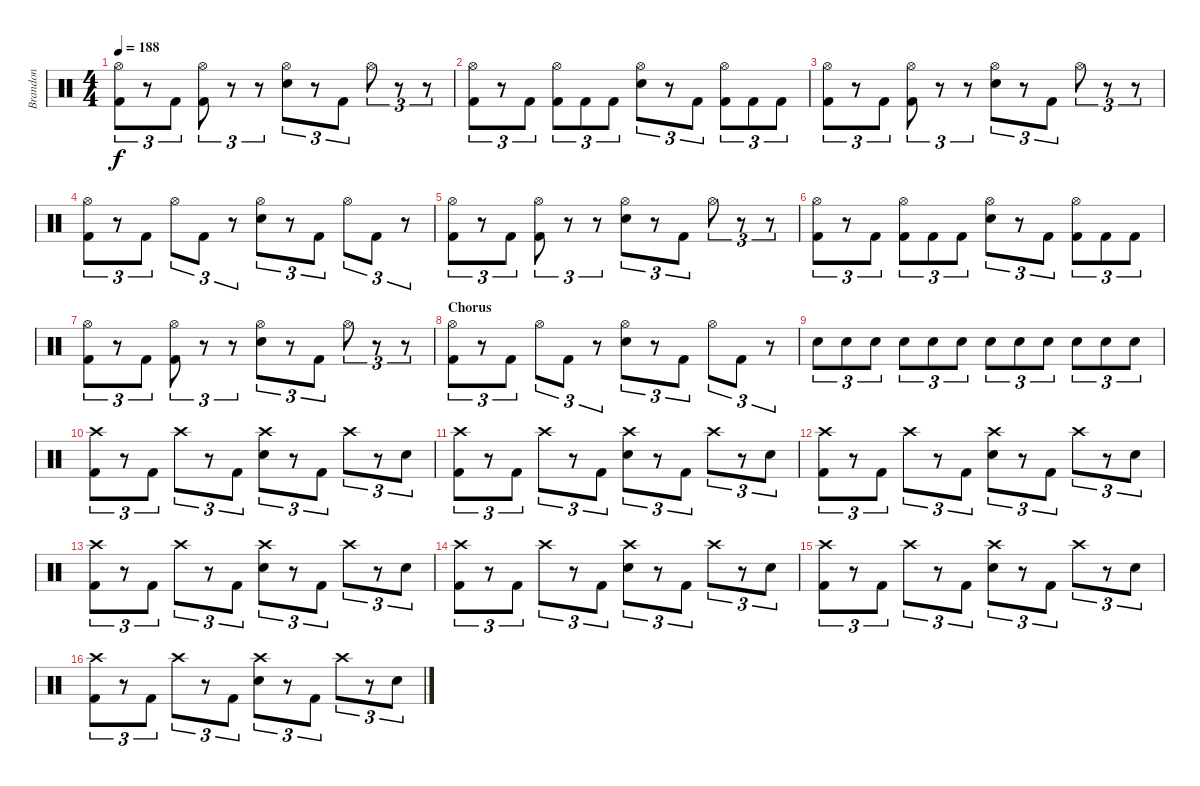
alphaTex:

\track ("Brandon" "Brandon") {instrument percussion}
\staff {score}
\articulation defaults
\ts (4 4)
\tempo 188
\clef neutral
\ks c
("Hi-Hat (open)" "Kick (hit) 2").8{tu (3 2) dy f} r.8{tu (3 2)} "Kick (hit) 2".8{tu (3 2)} ("Hi-Hat (open)" "Kick (hit) 2").8{tu (3 2)} r.8{tu (3 2)} r.8{tu (3 2)} ("Hi-Hat (open)" "Electric Snare (hit)").8{tu (3 2)} r.8{tu (3 2)} "Kick (hit) 2".8{tu (3 2)} "Hi-Hat (open)".8{tu (3 2)} r.8{tu (3 2)} r.8{tu (3 2)} |
("Hi-Hat (open)" "Kick (hit) 2").8{tu (3 2)} r.8{tu (3 2)} "Kick (hit) 2".8{tu (3 2)} ("Hi-Hat (open)" "Kick (hit) 2").8{tu (3 2)} "Kick (hit) 2".8{tu (3 2)} "Kick (hit) 2".8{tu (3 2)} ("Hi-Hat (open)" "Electric Snare (hit)").8{tu (3 2)} r.8{tu (3 2)} "Kick (hit) 2".8{tu (3 2)} ("Hi-Hat (open)" "Kick (hit) 2").8{tu (3 2)} "Kick (hit) 2".8{tu (3 2)} "Kick (hit) 2".8{tu (3 2)} |
("Hi-Hat (open)" "Kick (hit) 2").8{tu (3 2)} r.8{tu (3 2)} "Kick (hit) 2".8{tu (3 2)} ("Hi-Hat (open)" "Kick (hit) 2").8{tu (3 2)} r.8{tu (3 2)} r.8{tu (3 2)} ("Hi-Hat (open)" "Electric Snare (hit)").8{tu (3 2)} r.8{tu (3 2)} "Kick (hit) 2".8{tu (3 2)} "Hi-Hat (open)".8{tu (3 2)} r.8{tu (3 2)} r.8{tu (3 2)} |
("Hi-Hat (open)" "Kick (hit) 2").8{tu (3 2)} r.8{tu (3 2)} "Kick (hit) 2".8{tu (3 2)} "Hi-Hat (open)".8{tu (3 2)} "Kick (hit) 2".8{tu (3 2)} r.8{tu (3 2)} ("Hi-Hat (open)" "Electric Snare (hit)").8{tu (3 2)} r.8{tu (3 2)} "Kick (hit) 2".8{tu (3 2)} "Hi-Hat (open)".8{tu (3 2)} "Kick (hit) 2".8{tu (3 2)} r.8{tu (3 2)} |
("Hi-Hat (open)" "Kick (hit) 2").8{tu (3 2)} r.8{tu (3 2)} "Kick (hit) 2".8{tu (3 2)} ("Hi-Hat (open)" "Kick (hit) 2").8{tu (3 2)} r.8{tu (3 2)} r.8{tu (3 2)} ("Hi-Hat (open)" "Electric Snare (hit)").8{tu (3 2)} r.8{tu (3 2)} "Kick (hit) 2".8{tu (3 2)} "Hi-Hat (open)".8{tu (3 2)} r.8{tu (3 2)} r.8{tu (3 2)} |
("Hi-Hat (open)" "Kick (hit) 2").8{tu (3 2)} r.8{tu (3 2)} "Kick (hit) 2".8{tu (3 2)} ("Hi-Hat (open)" "Kick (hit) 2").8{tu (3 2)} "Kick (hit) 2".8{tu (3 2)} "Kick (hit) 2".8{tu (3 2)} ("Hi-Hat (open)" "Electric Snare (hit)").8{tu (3 2)} r.8{tu (3 2)} "Kick (hit) 2".8{tu (3 2)} ("Hi-Hat (open)" "Kick (hit) 2").8{tu (3 2)} "Kick (hit) 2".8{tu (3 2)} "Kick (hit) 2".8{tu (3 2)} |
("Hi-Hat (open)" "Kick (hit) 2").8{tu (3 2)} r.8{tu (3 2)} "Kick (hit) 2".8{tu (3 2)} ("Hi-Hat (open)" "Kick (hit) 2").8{tu (3 2)} r.8{tu (3 2)} r.8{tu (3 2)} ("Hi-Hat (open)" "Electric Snare (hit)").8{tu (3 2)} r.8{tu (3 2)} "Kick (hit) 2".8{tu (3 2)} "Hi-Hat (open)".8{tu (3 2)} r.8{tu (3 2)} r.8{tu (3 2)} |
\section ("" "Chorus")
("Hi-Hat (open)" "Kick (hit) 2").8{tu (3 2)} r.8{tu (3 2)} "Kick (hit) 2".8{tu (3 2)} "Hi-Hat (open)".8{tu (3 2)} "Kick (hit) 2".8{tu (3 2)} r.8{tu (3 2)} ("Hi-Hat (open)" "Electric Snare (hit)").8{tu (3 2)} r.8{tu (3 2)} "Kick (hit) 2".8{tu (3 2)} "Hi-Hat (open)".8{tu (3 2)} "Kick (hit) 2".8{tu (3 2)} r.8{tu (3 2)} |
"Electric Snare (hit)".8{tu (3 2)} "Electric Snare (hit)".8{tu (3 2)} "Electric Snare (hit)".8{tu (3 2)} "Electric Snare (hit)".8{tu (3 2)} "Electric Snare (hit)".8{tu (3 2)} "Electric Snare (hit)".8{tu (3 2)} "Electric Snare (hit)".8{tu (3 2)} "Electric Snare (hit)".8{tu (3 2)} "Electric Snare (hit)".8{tu (3 2)} "Electric Snare (hit)".8{tu (3 2)} "Electric Snare (hit)".8{tu (3 2)} "Electric Snare (hit)".8{tu (3 2)} |
("Crash high (hit)" "Kick (hit) 2").8{tu (3 2)} r.8{tu (3 2)} "Kick (hit) 2".8{tu (3 2)} "Crash high (hit)".8{tu (3 2)} r.8{tu (3 2)} "Kick (hit) 2".8{tu (3 2)} ("Crash high (hit)" "Electric Snare (hit)").8{tu (3 2)} r.8{tu (3 2)} "Kick (hit) 2".8{tu (3 2)} "Crash high (hit)".8{tu (3 2)} r.8{tu (3 2)} "Electric Snare (hit)".8{tu (3 2)} |
("Crash high (hit)" "Kick (hit) 2").8{tu (3 2)} r.8{tu (3 2)} "Kick (hit) 2".8{tu (3 2)} "Crash high (hit)".8{tu (3 2)} r.8{tu (3 2)} "Kick (hit) 2".8{tu (3 2)} ("Crash high (hit)" "Electric Snare (hit)").8{tu (3 2)} r.8{tu (3 2)} "Kick (hit) 2".8{tu (3 2)} "Crash high (hit)".8{tu (3 2)} r.8{tu (3 2)} "Electric Snare (hit)".8{tu (3 2)} |
("Crash high (hit)" "Kick (hit) 2").8{tu (3 2)} r.8{tu (3 2)} "Kick (hit) 2".8{tu (3 2)} "Crash high (hit)".8{tu (3 2)} r.8{tu (3 2)} "Kick (hit) 2".8{tu (3 2)} ("Crash high (hit)" "Electric Snare (hit)").8{tu (3 2)} r.8{tu (3 2)} "Kick (hit) 2".8{tu (3 2)} "Crash high (hit)".8{tu (3 2)} r.8{tu (3 2)} "Electric Snare (hit)".8{tu (3 2)} |
("Crash high (hit)" "Kick (hit) 2").8{tu (3 2)} r.8{tu (3 2)} "Kick (hit) 2".8{tu (3 2)} "Crash high (hit)".8{tu (3 2)} r.8{tu (3 2)} "Kick (hit) 2".8{tu (3 2)} ("Crash high (hit)" "Electric Snare (hit)").8{tu (3 2)} r.8{tu (3 2)} "Kick (hit) 2".8{tu (3 2)} "Crash high (hit)".8{tu (3 2)} r.8{tu (3 2)} "Electric Snare (hit)".8{tu (3 2)} |
("Crash high (hit)" "Kick (hit) 2").8{tu (3 2)} r.8{tu (3 2)} "Kick (hit) 2".8{tu (3 2)} "Crash high (hit)".8{tu (3 2)} r.8{tu (3 2)} "Kick (hit) 2".8{tu (3 2)} ("Crash high (hit)" "Electric Snare (hit)").8{tu (3 2)} r.8{tu (3 2)} "Kick (hit) 2".8{tu (3 2)} "Crash high (hit)".8{tu (3 2)} r.8{tu (3 2)} "Electric Snare (hit)".8{tu (3 2)} |
("Crash high (hit)" "Kick (hit) 2").8{tu (3 2)} r.8{tu (3 2)} "Kick (hit) 2".8{tu (3 2)} "Crash high (hit)".8{tu (3 2)} r.8{tu (3 2)} "Kick (hit) 2".8{tu (3 2)} ("Crash high (hit)" "Electric Snare (hit)").8{tu (3 2)} r.8{tu (3 2)} "Kick (hit) 2".8{tu (3 2)} "Crash high (hit)".8{tu (3 2)} r.8{tu (3 2)} "Electric Snare (hit)".8{tu (3 2)} |
("Crash high (hit)" "Kick (hit) 2").8{tu (3 2)} r.8{tu (3 2)} "Kick (hit) 2".8{tu (3 2)} "Crash high (hit)".8{tu (3 2)} r.8{tu (3 2)} "Kick (hit) 2".8{tu (3 2)} ("Crash high (hit)" "Electric Snare (hit)").8{tu (3 2)} r.8{tu (3 2)} "Kick (hit) 2".8{tu (3 2)} "Crash high (hit)".8{tu (3 2)} r.8{tu (3 2)} "Electric Snare (hit)".8{tu (3 2)}
